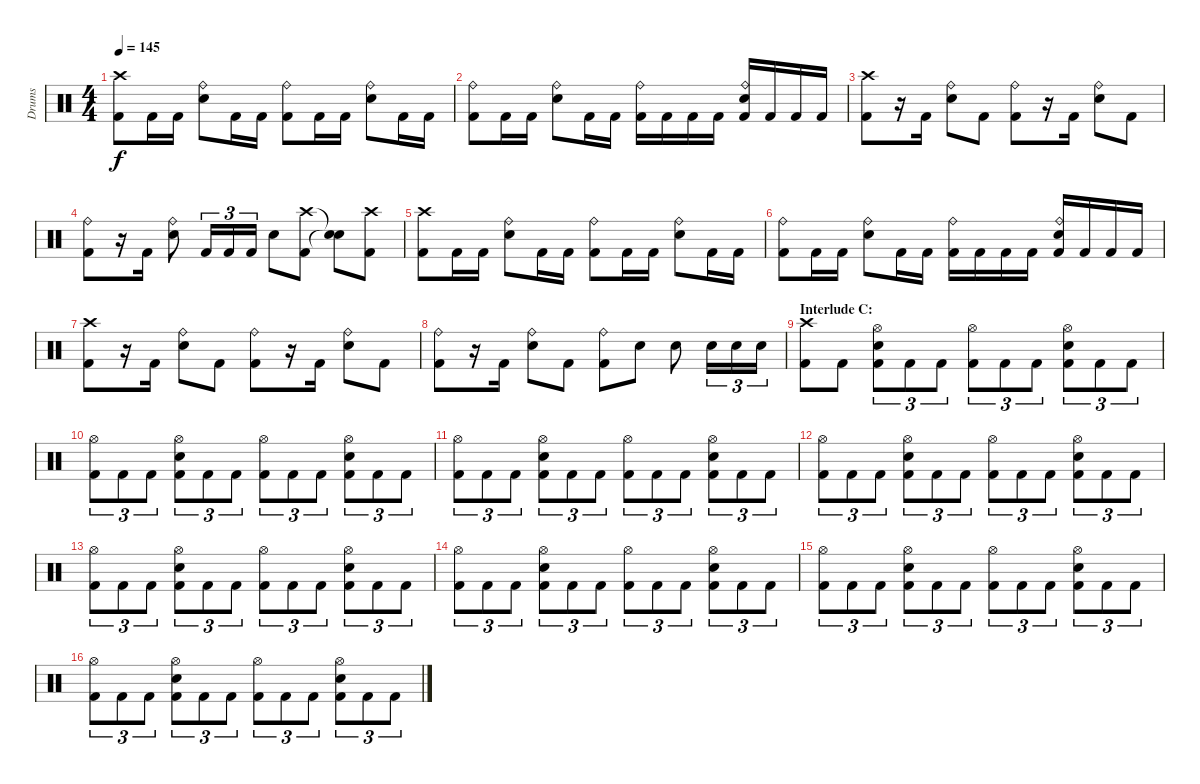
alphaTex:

\track ("Drums" "Drums") {instrument percussion}
\staff {score}
\articulation defaults
\ts (4 4)
\tempo 145
\clef neutral
\ks c
("Crash high (hit)" "Kick (hit) 2").8{dy f} "Kick (hit) 2".16 "Kick (hit) 2".16 ("Ride (bell)" "Snare (hit) 2").8 "Kick (hit) 2".16 "Kick (hit) 2".16 ("Ride (bell)" "Kick (hit) 2").8 "Kick (hit) 2".16 "Kick (hit) 2".16 ("Ride (bell)" "Snare (hit) 2").8 "Kick (hit) 2".16 "Kick (hit) 2".16 |
("Ride (bell)" "Kick (hit) 2").8 "Kick (hit) 2".16 "Kick (hit) 2".16 ("Ride (bell)" "Snare (hit) 2").8 "Kick (hit) 2".16 "Kick (hit) 2".16 ("Ride (bell)" "Kick (hit) 2").16 "Kick (hit) 2".16 "Kick (hit) 2".16 "Kick (hit) 2".16 ("Ride (bell)" "Snare (hit) 2" "Kick (hit) 2").16 "Kick (hit) 2".16 "Kick (hit) 2".16 "Kick (hit) 2".16 |
("Crash high (hit)" "Kick (hit) 2").8 r.16 "Kick (hit) 2".16 ("Ride (bell)" "Snare (hit) 2").8 "Kick (hit) 2".8 ("Ride (bell)" "Kick (hit) 2").8 r.16 "Kick (hit) 2".16 ("Ride (bell)" "Snare (hit) 2").8 "Kick (hit) 2".8 |
("Ride (bell)" "Kick (hit) 2").8 r.16 "Kick (hit) 2".16 ("Ride (bell)" "Snare (hit) 2").8 "Kick (hit) 2".16{tu (3 2)} "Kick (hit) 2".16{tu (3 2)} "Kick (hit) 2".16{tu (3 2)} "Snare (hit) 2".8 ("Crash high (hit)" "Kick (hit) 2").8 ("Snare (hit)"{t} "Snare (hit)"{t}).8 ("Crash high (hit)" "Kick (hit) 2").8 |
("Crash high (hit)" "Kick (hit) 2").8 "Kick (hit) 2".16 "Kick (hit) 2".16 ("Ride (bell)" "Snare (hit) 2").8 "Kick (hit) 2".16 "Kick (hit) 2".16 ("Ride (bell)" "Kick (hit) 2").8 "Kick (hit) 2".16 "Kick (hit) 2".16 ("Ride (bell)" "Snare (hit) 2").8 "Kick (hit) 2".16 "Kick (hit) 2".16 |
("Ride (bell)" "Kick (hit) 2").8 "Kick (hit) 2".16 "Kick (hit) 2".16 ("Ride (bell)" "Snare (hit) 2").8 "Kick (hit) 2".16 "Kick (hit) 2".16 ("Ride (bell)" "Kick (hit) 2").16 "Kick (hit) 2".16 "Kick (hit) 2".16 "Kick (hit) 2".16 ("Ride (bell)" "Snare (hit) 2" "Kick (hit) 2").16 "Kick (hit) 2".16 "Kick (hit) 2".16 "Kick (hit) 2".16 |
("Crash high (hit)" "Kick (hit) 2").8 r.16 "Kick (hit) 2".16 ("Ride (bell)" "Snare (hit) 2").8 "Kick (hit) 2".8 ("Ride (bell)" "Kick (hit) 2").8 r.16 "Kick (hit) 2".16 ("Ride (bell)" "Snare (hit) 2").8 "Kick (hit) 2".8 |
("Ride (bell)" "Kick (hit) 2").8 r.16 "Kick (hit) 2".16 ("Ride (bell)" "Snare (hit) 2").8 "Kick (hit) 2".8 ("Ride (bell)" "Kick (hit) 2").8 "Snare (hit) 2".8 "Snare (hit) 2".8 "Snare (hit) 2".16{tu (3 2)} "Snare (hit) 2".16{tu (3 2)} "Snare (hit) 2".16{tu (3 2)} |
\section ("" "Interlude C:")
("Crash high (hit)" "Kick (hit) 2").8 "Kick (hit) 2".8 ("Hi-Hat (open)" "Snare (hit) 2" "Kick (hit) 2").8{tu (3 2)} "Kick (hit) 2".8{tu (3 2)} "Kick (hit) 2".8{tu (3 2)} ("Hi-Hat (open)" "Kick (hit) 2").8{tu (3 2)} "Kick (hit) 2".8{tu (3 2)} "Kick (hit) 2".8{tu (3 2)} ("Hi-Hat (open)" "Snare (hit) 2" "Kick (hit) 2").8{tu (3 2)} "Kick (hit) 2".8{tu (3 2)} "Kick (hit) 2".8{tu (3 2)} |
("Hi-Hat (open)" "Kick (hit) 2").8{tu (3 2)} "Kick (hit) 2".8{tu (3 2)} "Kick (hit) 2".8{tu (3 2)} ("Hi-Hat (open)" "Snare (hit) 2" "Kick (hit) 2").8{tu (3 2)} "Kick (hit) 2".8{tu (3 2)} "Kick (hit) 2".8{tu (3 2)} ("Hi-Hat (open)" "Kick (hit) 2").8{tu (3 2)} "Kick (hit) 2".8{tu (3 2)} "Kick (hit) 2".8{tu (3 2)} ("Hi-Hat (open)" "Snare (hit) 2" "Kick (hit) 2").8{tu (3 2)} "Kick (hit) 2".8{tu (3 2)} "Kick (hit) 2".8{tu (3 2)} |
("Hi-Hat (open)" "Kick (hit) 2").8{tu (3 2)} "Kick (hit) 2".8{tu (3 2)} "Kick (hit) 2".8{tu (3 2)} ("Hi-Hat (open)" "Snare (hit) 2" "Kick (hit) 2").8{tu (3 2)} "Kick (hit) 2".8{tu (3 2)} "Kick (hit) 2".8{tu (3 2)} ("Hi-Hat (open)" "Kick (hit) 2").8{tu (3 2)} "Kick (hit) 2".8{tu (3 2)} "Kick (hit) 2".8{tu (3 2)} ("Hi-Hat (open)" "Snare (hit) 2" "Kick (hit) 2").8{tu (3 2)} "Kick (hit) 2".8{tu (3 2)} "Kick (hit) 2".8{tu (3 2)} |
("Hi-Hat (open)" "Kick (hit) 2").8{tu (3 2)} "Kick (hit) 2".8{tu (3 2)} "Kick (hit) 2".8{tu (3 2)} ("Hi-Hat (open)" "Snare (hit) 2" "Kick (hit) 2").8{tu (3 2)} "Kick (hit) 2".8{tu (3 2)} "Kick (hit) 2".8{tu (3 2)} ("Hi-Hat (open)" "Kick (hit) 2").8{tu (3 2)} "Kick (hit) 2".8{tu (3 2)} "Kick (hit) 2".8{tu (3 2)} ("Hi-Hat (open)" "Snare (hit) 2" "Kick (hit) 2").8{tu (3 2)} "Kick (hit) 2".8{tu (3 2)} "Kick (hit) 2".8{tu (3 2)} |
("Hi-Hat (open)" "Kick (hit) 2").8{tu (3 2)} "Kick (hit) 2".8{tu (3 2)} "Kick (hit) 2".8{tu (3 2)} ("Hi-Hat (open)" "Snare (hit) 2" "Kick (hit) 2").8{tu (3 2)} "Kick (hit) 2".8{tu (3 2)} "Kick (hit) 2".8{tu (3 2)} ("Hi-Hat (open)" "Kick (hit) 2").8{tu (3 2)} "Kick (hit) 2".8{tu (3 2)} "Kick (hit) 2".8{tu (3 2)} ("Hi-Hat (open)" "Snare (hit) 2" "Kick (hit) 2").8{tu (3 2)} "Kick (hit) 2".8{tu (3 2)} "Kick (hit) 2".8{tu (3 2)} |
("Hi-Hat (open)" "Kick (hit) 2").8{tu (3 2)} "Kick (hit) 2".8{tu (3 2)} "Kick (hit) 2".8{tu (3 2)} ("Hi-Hat (open)" "Snare (hit) 2" "Kick (hit) 2").8{tu (3 2)} "Kick (hit) 2".8{tu (3 2)} "Kick (hit) 2".8{tu (3 2)} ("Hi-Hat (open)" "Kick (hit) 2").8{tu (3 2)} "Kick (hit) 2".8{tu (3 2)} "Kick (hit) 2".8{tu (3 2)} ("Hi-Hat (open)" "Snare (hit) 2" "Kick (hit) 2").8{tu (3 2)} "Kick (hit) 2".8{tu (3 2)} "Kick (hit) 2".8{tu (3 2)} |
("Hi-Hat (open)" "Kick (hit) 2").8{tu (3 2)} "Kick (hit) 2".8{tu (3 2)} "Kick (hit) 2".8{tu (3 2)} ("Hi-Hat (open)" "Snare (hit) 2" "Kick (hit) 2").8{tu (3 2)} "Kick (hit) 2".8{tu (3 2)} "Kick (hit) 2".8{tu (3 2)} ("Hi-Hat (open)" "Kick (hit) 2").8{tu (3 2)} "Kick (hit) 2".8{tu (3 2)} "Kick (hit) 2".8{tu (3 2)} ("Hi-Hat (open)" "Snare (hit) 2" "Kick (hit) 2").8{tu (3 2)} "Kick (hit) 2".8{tu (3 2)} "Kick (hit) 2".8{tu (3 2)} |
("Hi-Hat (open)" "Kick (hit) 2").8{tu (3 2)} "Kick (hit) 2".8{tu (3 2)} "Kick (hit) 2".8{tu (3 2)} ("Hi-Hat (open)" "Snare (hit) 2" "Kick (hit) 2").8{tu (3 2)} "Kick (hit) 2".8{tu (3 2)} "Kick (hit) 2".8{tu (3 2)} ("Hi-Hat (open)" "Kick (hit) 2").8{tu (3 2)} "Kick (hit) 2".8{tu (3 2)} "Kick (hit) 2".8{tu (3 2)} ("Hi-Hat (open)" "Snare (hit) 2" "Kick (hit) 2").8{tu (3 2)} "Kick (hit) 2".8{tu (3 2)} "Kick (hit) 2".8{tu (3 2)}
